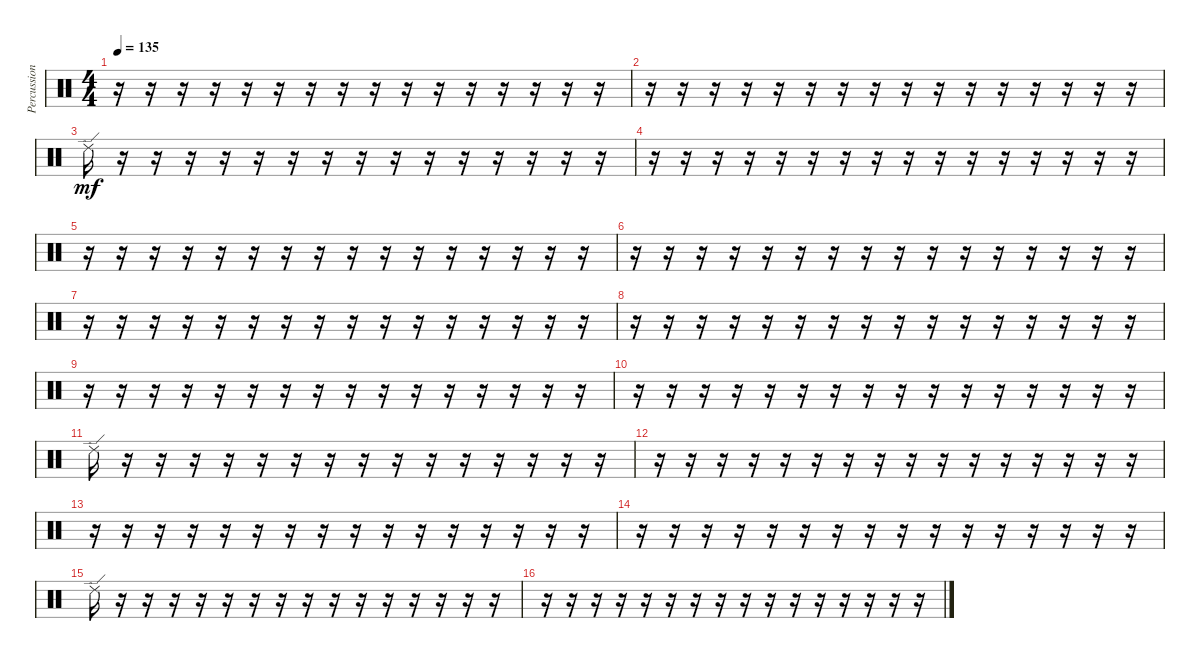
\track ("Percussion (Orchestral Kit)" "Percussion") {instrument percussion}
\staff {score}
\articulation defaults
\ts (4 4)
\tempo 135
\clef neutral
\ks c
r.16{dy mf} r.16 r.16 r.16 r.16 r.16 r.16 r.16 r.16 r.16 r.16 r.16 r.16 r.16 r.16 r.16 |
r.16 r.16 r.16 r.16 r.16 r.16 r.16 r.16 r.16 r.16 r.16 r.16 r.16 r.16 r.16 r.16 |
"Ride (edge) 2".16 r.16 r.16 r.16 r.16 r.16 r.16 r.16 r.16 r.16 r.16 r.16 r.16 r.16 r.16 r.16 |
r.16 r.16 r.16 r.16 r.16 r.16 r.16 r.16 r.16 r.16 r.16 r.16 r.16 r.16 r.16 r.16 |
r.16 r.16 r.16 r.16 r.16 r.16 r.16 r.16 r.16 r.16 r.16 r.16 r.16 r.16 r.16 r.16 |
r.16 r.16 r.16 r.16 r.16 r.16 r.16 r.16 r.16 r.16 r.16 r.16 r.16 r.16 r.16 r.16 |
r.16 r.16 r.16 r.16 r.16 r.16 r.16 r.16 r.16 r.16 r.16 r.16 r.16 r.16 r.16 r.16 |
r.16 r.16 r.16 r.16 r.16 r.16 r.16 r.16 r.16 r.16 r.16 r.16 r.16 r.16 r.16 r.16 |
r.16 r.16 r.16 r.16 r.16 r.16 r.16 r.16 r.16 r.16 r.16 r.16 r.16 r.16 r.16 r.16 |
r.16 r.16 r.16 r.16 r.16 r.16 r.16 r.16 r.16 r.16 r.16 r.16 r.16 r.16 r.16 r.16 |
"Ride (edge) 2".16 r.16 r.16 r.16 r.16 r.16 r.16 r.16 r.16 r.16 r.16 r.16 r.16 r.16 r.16 r.16 |
r.16 r.16 r.16 r.16 r.16 r.16 r.16 r.16 r.16 r.16 r.16 r.16 r.16 r.16 r.16 r.16 |
r.16 r.16 r.16 r.16 r.16 r.16 r.16 r.16 r.16 r.16 r.16 r.16 r.16 r.16 r.16 r.16 |
r.16 r.16 r.16 r.16 r.16 r.16 r.16 r.16 r.16 r.16 r.16 r.16 r.16 r.16 r.16 r.16 |
"Ride (edge) 2".16 r.16 r.16 r.16 r.16 r.16 r.16 r.16 r.16 r.16 r.16 r.16 r.16 r.16 r.16 r.16 |
r.16 r.16 r.16 r.16 r.16 r.16 r.16 r.16 r.16 r.16 r.16 r.16 r.16 r.16 r.16 r.16
